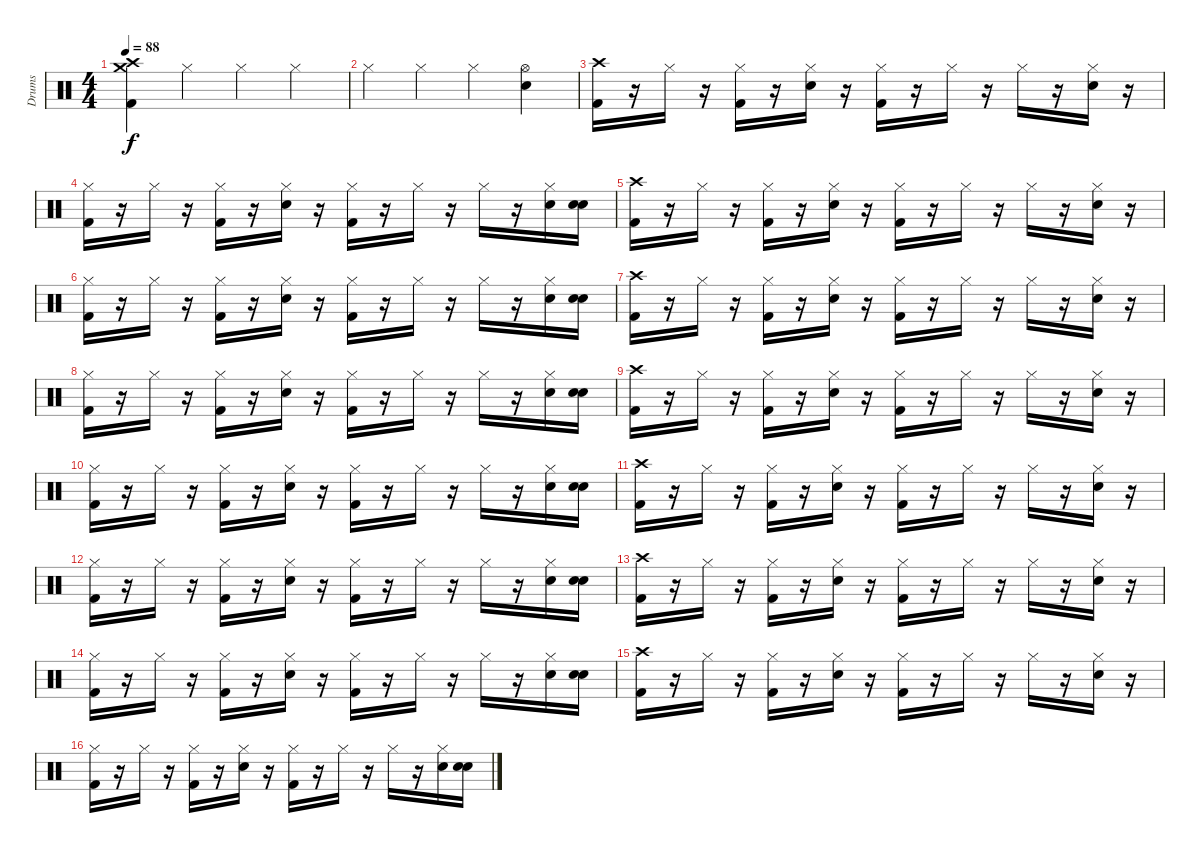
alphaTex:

\track ("Drums" "Drums") {instrument percussion}
\staff {score}
\articulation defaults
\ts (4 4)
\tempo 88
\clef neutral
\ks c
("Crash high (hit)" "Crash medium (hit)" "Kick (hit) 2").4{dy f} "Hi-Hat (closed)".4 "Hi-Hat (closed)".4 "Hi-Hat (closed)".4 |
"Hi-Hat (closed)".4 "Hi-Hat (closed)".4 "Hi-Hat (closed)".4 ("Hi-Hat (open)" "Snare (hit) 2").4 |
("Crash high (hit)" "Kick (hit) 2").16 r.16 "Hi-Hat (closed)".16 r.16 ("Hi-Hat (closed)" "Kick (hit) 2").16 r.16 ("Hi-Hat (closed)" "Electric Snare (hit)").16 r.16 ("Hi-Hat (closed)" "Kick (hit) 2").16 r.16 "Hi-Hat (closed)".16 r.16 "Hi-Hat (closed)".16 r.16 ("Hi-Hat (closed)" "Electric Snare (hit)").16 r.16 |
("Hi-Hat (closed)" "Kick (hit) 2").16 r.16 "Hi-Hat (closed)".16 r.16 ("Hi-Hat (closed)" "Kick (hit) 2").16 r.16 ("Hi-Hat (closed)" "Electric Snare (hit)").16 r.16 ("Hi-Hat (closed)" "Kick (hit) 2").16 r.16 "Hi-Hat (closed)".16 r.16 "Hi-Hat (closed)".16 r.16 ("Hi-Hat (closed)" "Electric Snare (hit)").16 ("Electric Snare (hit)" "Electric Snare (hit)").16 |
("Crash high (hit)" "Kick (hit) 2").16 r.16 "Hi-Hat (closed)".16 r.16 ("Hi-Hat (closed)" "Kick (hit) 2").16 r.16 ("Hi-Hat (closed)" "Electric Snare (hit)").16 r.16 ("Hi-Hat (closed)" "Kick (hit) 2").16 r.16 "Hi-Hat (closed)".16 r.16 "Hi-Hat (closed)".16 r.16 ("Hi-Hat (closed)" "Electric Snare (hit)").16 r.16 |
("Hi-Hat (closed)" "Kick (hit) 2").16 r.16 "Hi-Hat (closed)".16 r.16 ("Hi-Hat (closed)" "Kick (hit) 2").16 r.16 ("Hi-Hat (closed)" "Electric Snare (hit)").16 r.16 ("Hi-Hat (closed)" "Kick (hit) 2").16 r.16 "Hi-Hat (closed)".16 r.16 "Hi-Hat (closed)".16 r.16 ("Hi-Hat (closed)" "Electric Snare (hit)").16 ("Electric Snare (hit)" "Electric Snare (hit)").16 |
("Crash high (hit)" "Kick (hit) 2").16 r.16 "Hi-Hat (closed)".16 r.16 ("Hi-Hat (closed)" "Kick (hit) 2").16 r.16 ("Hi-Hat (closed)" "Electric Snare (hit)").16 r.16 ("Hi-Hat (closed)" "Kick (hit) 2").16 r.16 "Hi-Hat (closed)".16 r.16 "Hi-Hat (closed)".16 r.16 ("Hi-Hat (closed)" "Electric Snare (hit)").16 r.16 |
("Hi-Hat (closed)" "Kick (hit) 2").16 r.16 "Hi-Hat (closed)".16 r.16 ("Hi-Hat (closed)" "Kick (hit) 2").16 r.16 ("Hi-Hat (closed)" "Electric Snare (hit)").16 r.16 ("Hi-Hat (closed)" "Kick (hit) 2").16 r.16 "Hi-Hat (closed)".16 r.16 "Hi-Hat (closed)".16 r.16 ("Hi-Hat (closed)" "Electric Snare (hit)").16 ("Electric Snare (hit)" "Electric Snare (hit)").16 |
("Crash high (hit)" "Kick (hit) 2").16 r.16 "Hi-Hat (closed)".16 r.16 ("Hi-Hat (closed)" "Kick (hit) 2").16 r.16 ("Hi-Hat (closed)" "Electric Snare (hit)").16 r.16 ("Hi-Hat (closed)" "Kick (hit) 2").16 r.16 "Hi-Hat (closed)".16 r.16 "Hi-Hat (closed)".16 r.16 ("Hi-Hat (closed)" "Electric Snare (hit)").16 r.16 |
("Hi-Hat (closed)" "Kick (hit) 2").16 r.16 "Hi-Hat (closed)".16 r.16 ("Hi-Hat (closed)" "Kick (hit) 2").16 r.16 ("Hi-Hat (closed)" "Electric Snare (hit)").16 r.16 ("Hi-Hat (closed)" "Kick (hit) 2").16 r.16 "Hi-Hat (closed)".16 r.16 "Hi-Hat (closed)".16 r.16 ("Hi-Hat (closed)" "Electric Snare (hit)").16 ("Electric Snare (hit)" "Electric Snare (hit)").16 |
("Crash high (hit)" "Kick (hit) 2").16 r.16 "Hi-Hat (closed)".16 r.16 ("Hi-Hat (closed)" "Kick (hit) 2").16 r.16 ("Hi-Hat (closed)" "Electric Snare (hit)").16 r.16 ("Hi-Hat (closed)" "Kick (hit) 2").16 r.16 "Hi-Hat (closed)".16 r.16 "Hi-Hat (closed)".16 r.16 ("Hi-Hat (closed)" "Electric Snare (hit)").16 r.16 |
("Hi-Hat (closed)" "Kick (hit) 2").16 r.16 "Hi-Hat (closed)".16 r.16 ("Hi-Hat (closed)" "Kick (hit) 2").16 r.16 ("Hi-Hat (closed)" "Electric Snare (hit)").16 r.16 ("Hi-Hat (closed)" "Kick (hit) 2").16 r.16 "Hi-Hat (closed)".16 r.16 "Hi-Hat (closed)".16 r.16 ("Hi-Hat (closed)" "Electric Snare (hit)").16 ("Electric Snare (hit)" "Electric Snare (hit)").16 |
("Crash high (hit)" "Kick (hit) 2").16 r.16 "Hi-Hat (closed)".16 r.16 ("Hi-Hat (closed)" "Kick (hit) 2").16 r.16 ("Hi-Hat (closed)" "Electric Snare (hit)").16 r.16 ("Hi-Hat (closed)" "Kick (hit) 2").16 r.16 "Hi-Hat (closed)".16 r.16 "Hi-Hat (closed)".16 r.16 ("Hi-Hat (closed)" "Electric Snare (hit)").16 r.16 |
("Hi-Hat (closed)" "Kick (hit) 2").16 r.16 "Hi-Hat (closed)".16 r.16 ("Hi-Hat (closed)" "Kick (hit) 2").16 r.16 ("Hi-Hat (closed)" "Electric Snare (hit)").16 r.16 ("Hi-Hat (closed)" "Kick (hit) 2").16 r.16 "Hi-Hat (closed)".16 r.16 "Hi-Hat (closed)".16 r.16 ("Hi-Hat (closed)" "Electric Snare (hit)").16 ("Electric Snare (hit)" "Snare (hit) 2").16 |
("Crash high (hit)" "Kick (hit) 2").16 r.16 "Hi-Hat (closed)".16 r.16 ("Hi-Hat (closed)" "Kick (hit) 2").16 r.16 ("Hi-Hat (closed)" "Electric Snare (hit)").16 r.16 ("Hi-Hat (closed)" "Kick (hit) 2").16 r.16 "Hi-Hat (closed)".16 r.16 "Hi-Hat (closed)".16 r.16 ("Hi-Hat (closed)" "Electric Snare (hit)").16 r.16 |
("Hi-Hat (closed)" "Kick (hit) 2").16 r.16 "Hi-Hat (closed)".16 r.16 ("Hi-Hat (closed)" "Kick (hit) 2").16 r.16 ("Hi-Hat (closed)" "Electric Snare (hit)").16 r.16 ("Hi-Hat (closed)" "Kick (hit) 2").16 r.16 "Hi-Hat (closed)".16 r.16 "Hi-Hat (closed)".16 r.16 ("Hi-Hat (closed)" "Electric Snare (hit)").16 ("Electric Snare (hit)" "Electric Snare (hit)").16
